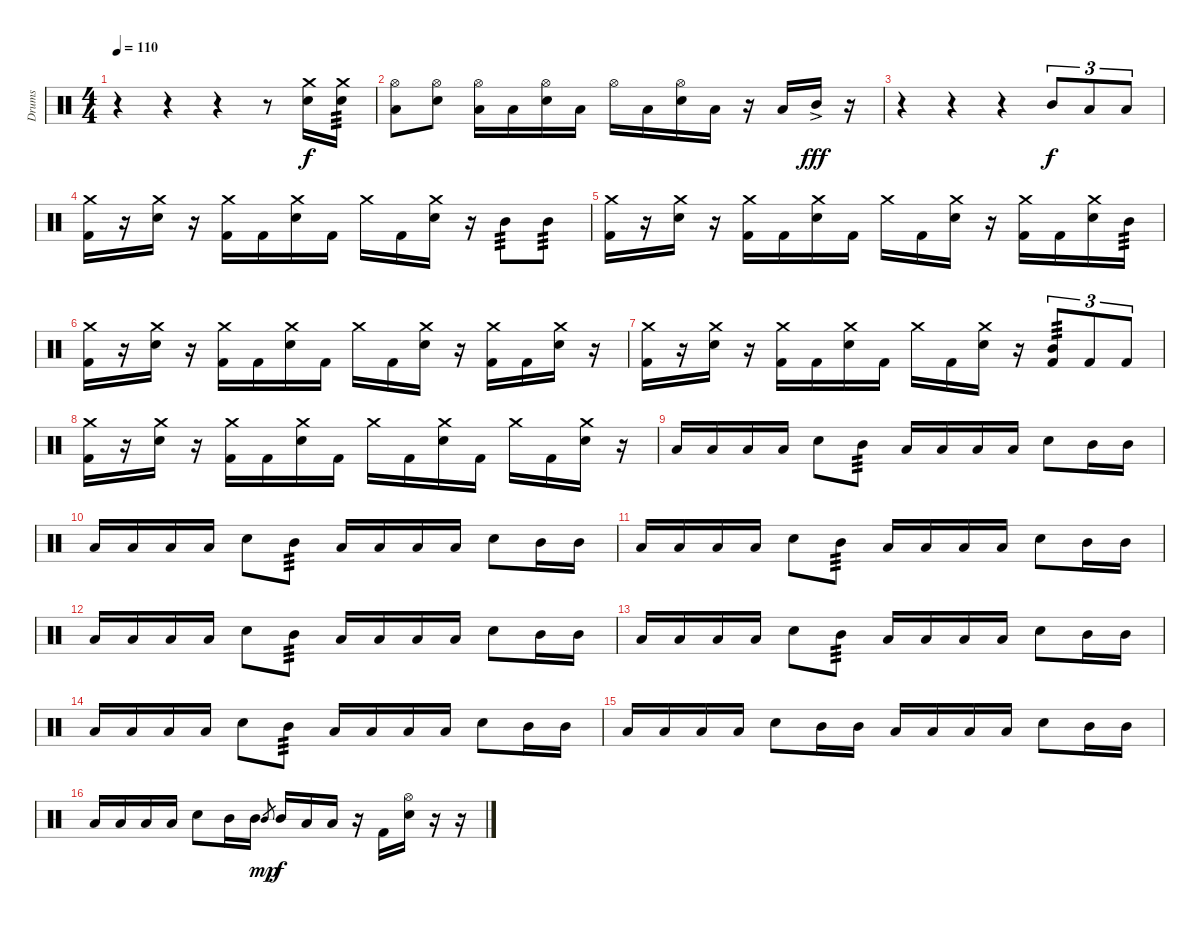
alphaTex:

\track ("Drums" "Drums") {instrument percussion}
\staff {score}
\articulation defaults
\ts (4 4)
\tempo 110
\clef neutral
\ks c
r.4{dy f} r.4 r.4 r.8 ("Crash medium (hit)" "Electric Snare (hit)").16 ("Crash medium (hit)" "Electric Snare (hit)").16{tp 3} |
("Hi-Hat (open)" "Low Floor Tom (hit)").8 ("Hi-Hat (open)" "Electric Snare (hit)").8 ("Hi-Hat (open)" "Low Floor Tom (hit)").16 "Low Floor Tom (hit)".16 ("Hi-Hat (open)" "Electric Snare (hit)").16 "Low Floor Tom (hit)".16 "Hi-Hat (open)".16 "Low Floor Tom (hit)".16 ("Hi-Hat (open)" "Electric Snare (hit)").16 "Low Floor Tom (hit)".16 r.16 "Low Floor Tom (hit)".16 "Mid Tom (hit)"{ac}.16{dy fff} r.16 |
r.4 r.4 r.4 "Mid Tom (hit)".8{tu (3 2) dy f} "Low Tom (hit)".8{tu (3 2)} "Low Floor Tom (hit)".8{tu (3 2)} |
("Crash medium (hit)" "Kick (hit) 2").16 r.16 ("Crash medium (hit)" "Electric Snare (hit)").16 r.16 ("Crash medium (hit)" "Kick (hit) 2").16 "Kick (hit) 2".16 ("Crash medium (hit)" "Electric Snare (hit)").16 "Kick (hit) 2".16 "Crash medium (hit)".16 "Kick (hit) 2".16 ("Crash medium (hit)" "Electric Snare (hit)").16 r.16 "Mid Tom (hit)".8{tp 3} "Mid Tom (hit)".8{tp 3} |
("Crash medium (hit)" "Kick (hit) 2").16 r.16 ("Crash medium (hit)" "Electric Snare (hit)").16 r.16 ("Crash medium (hit)" "Kick (hit) 2").16 "Kick (hit) 2".16 ("Crash medium (hit)" "Electric Snare (hit)").16 "Kick (hit) 2".16 "Crash medium (hit)".16 "Kick (hit) 2".16 ("Crash medium (hit)" "Electric Snare (hit)").16 r.16 ("Crash medium (hit)" "Kick (hit) 2").16 "Kick (hit) 2".16 ("Crash medium (hit)" "Electric Snare (hit)").16 "Mid Tom (hit)".16{tp 3} |
("Crash medium (hit)" "Kick (hit) 2").16 r.16 ("Crash medium (hit)" "Electric Snare (hit)").16 r.16 ("Crash medium (hit)" "Kick (hit) 2").16 "Kick (hit) 2".16 ("Crash medium (hit)" "Electric Snare (hit)").16 "Kick (hit) 2".16 "Crash medium (hit)".16 "Kick (hit) 2".16 ("Crash medium (hit)" "Electric Snare (hit)").16 r.16 ("Crash medium (hit)" "Kick (hit) 2").16 "Kick (hit) 2".16 ("Crash medium (hit)" "Electric Snare (hit)").16 r.16 |
("Crash medium (hit)" "Kick (hit) 2").16 r.16 ("Crash medium (hit)" "Electric Snare (hit)").16 r.16 ("Crash medium (hit)" "Kick (hit) 2").16 "Kick (hit) 2".16 ("Crash medium (hit)" "Electric Snare (hit)").16 "Kick (hit) 2".16 "Crash medium (hit)".16 "Kick (hit) 2".16 ("Crash medium (hit)" "Electric Snare (hit)").16 r.16 ("Mid Tom (hit)" "Kick (hit) 2").8{tu (3 2) tp 3} "Kick (hit) 2".8{tu (3 2)} "Kick (hit) 2".8{tu (3 2)} |
("Crash medium (hit)" "Kick (hit) 2").16 r.16 ("Crash medium (hit)" "Electric Snare (hit)").16 r.16 ("Crash medium (hit)" "Kick (hit) 2").16 "Kick (hit) 2".16 ("Crash medium (hit)" "Electric Snare (hit)").16 "Kick (hit) 2".16 "Crash medium (hit)".16 "Kick (hit) 2".16 ("Crash medium (hit)" "Electric Snare (hit)").16 "Kick (hit) 2".16 "Crash medium (hit)".16 "Kick (hit) 2".16 ("Crash medium (hit)" "Electric Snare (hit)").16 r.16 |
"Low Tom (hit)".16 "Low Tom (hit)".16 "Low Tom (hit)".16 "Low Tom (hit)".16 "Electric Snare (hit)".8 "Mid Tom (hit)".8{tp 3} "Low Tom (hit)".16 "Low Tom (hit)".16 "Low Tom (hit)".16 "Low Tom (hit)".16 "Electric Snare (hit)".8 "Mid Tom (hit)".16 "Mid Tom (hit)".16 |
"Low Tom (hit)".16 "Low Tom (hit)".16 "Low Tom (hit)".16 "Low Tom (hit)".16 "Electric Snare (hit)".8 "Mid Tom (hit)".8{tp 3} "Low Tom (hit)".16 "Low Tom (hit)".16 "Low Tom (hit)".16 "Low Tom (hit)".16 "Electric Snare (hit)".8 "Mid Tom (hit)".16 "Mid Tom (hit)".16 |
"Low Tom (hit)".16 "Low Tom (hit)".16 "Low Tom (hit)".16 "Low Tom (hit)".16 "Electric Snare (hit)".8 "Mid Tom (hit)".8{tp 3} "Low Tom (hit)".16 "Low Tom (hit)".16 "Low Tom (hit)".16 "Low Tom (hit)".16 "Electric Snare (hit)".8 "Mid Tom (hit)".16 "Mid Tom (hit)".16 |
"Low Tom (hit)".16 "Low Tom (hit)".16 "Low Tom (hit)".16 "Low Tom (hit)".16 "Electric Snare (hit)".8 "Mid Tom (hit)".8{tp 3} "Low Tom (hit)".16 "Low Tom (hit)".16 "Low Tom (hit)".16 "Low Tom (hit)".16 "Electric Snare (hit)".8 "Mid Tom (hit)".16 "Mid Tom (hit)".16 |
"Low Tom (hit)".16 "Low Tom (hit)".16 "Low Tom (hit)".16 "Low Tom (hit)".16 "Electric Snare (hit)".8 "Mid Tom (hit)".8{tp 3} "Low Tom (hit)".16 "Low Tom (hit)".16 "Low Tom (hit)".16 "Low Tom (hit)".16 "Electric Snare (hit)".8 "Mid Tom (hit)".16 "Mid Tom (hit)".16 |
"Low Tom (hit)".16 "Low Tom (hit)".16 "Low Tom (hit)".16 "Low Tom (hit)".16 "Electric Snare (hit)".8 "Mid Tom (hit)".8{tp 3} "Low Tom (hit)".16 "Low Tom (hit)".16 "Low Tom (hit)".16 "Low Tom (hit)".16 "Electric Snare (hit)".8 "Mid Tom (hit)".16 "Mid Tom (hit)".16 |
"Low Tom (hit)".16 "Low Tom (hit)".16 "Low Tom (hit)".16 "Low Tom (hit)".16 "Electric Snare (hit)".8 "Mid Tom (hit)".16 "Mid Tom (hit)".16 "Low Tom (hit)".16 "Low Tom (hit)".16 "Low Tom (hit)".16 "Low Tom (hit)".16 "Electric Snare (hit)".8 "Mid Tom (hit)".16 "Mid Tom (hit)".16 |
"Low Tom (hit)".16 "Low Tom (hit)".16 "Low Tom (hit)".16 "Low Tom (hit)".16 "Electric Snare (hit)".8 "Mid Tom (hit)".16 "Mid Tom (hit)".16 "Mid Tom (hit)".8{gr dy mp} "Mid Tom (hit)".16{dy f} "Low Tom (hit)".16 "Low Tom (hit)".16 r.16 "Kick (hit) 2".16 ("Hi-Hat (open)" "Electric Snare (hit)").16 r.16 r.16
